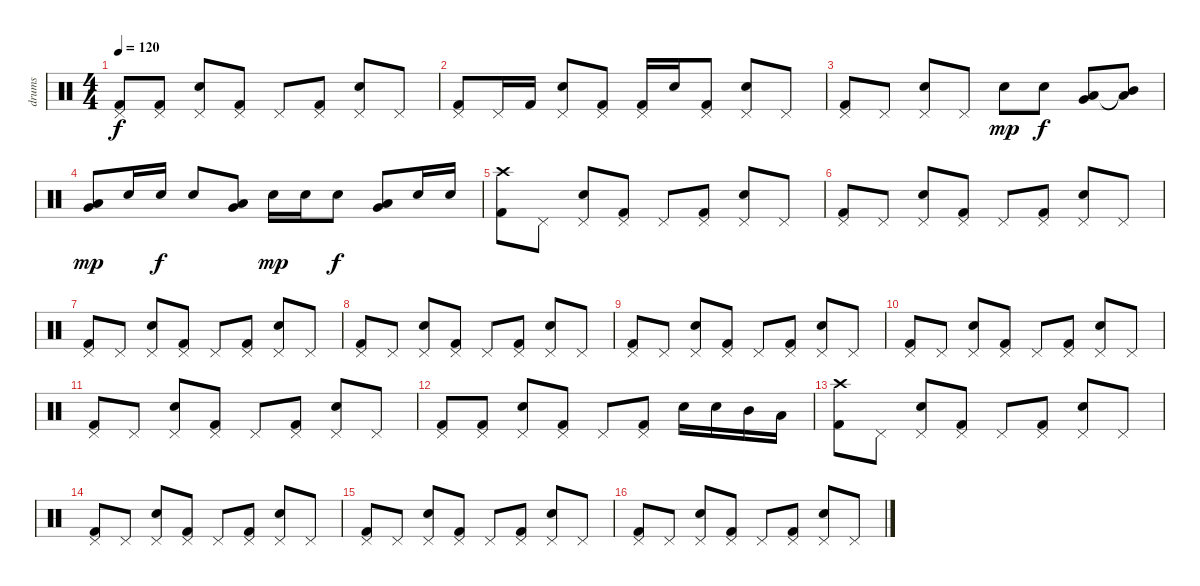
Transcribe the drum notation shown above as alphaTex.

\track ("drums" "drums") {instrument percussion}
\staff {score}
\articulation defaults
\ts (4 4)
\tempo 120
\clef neutral
\ks c
("Pedal Hi-Hat (hit)" "Kick (hit) 2").8{dy f} ("Pedal Hi-Hat (hit)" "Kick (hit) 2").8 ("Pedal Hi-Hat (hit)" "Electric Snare (hit)").8 ("Pedal Hi-Hat (hit)" "Kick (hit) 2").8 "Pedal Hi-Hat (hit)".8 ("Pedal Hi-Hat (hit)" "Kick (hit) 2").8 ("Pedal Hi-Hat (hit)" "Electric Snare (hit)").8 "Pedal Hi-Hat (hit)".8 |
("Pedal Hi-Hat (hit)" "Kick (hit) 2").8 "Pedal Hi-Hat (hit)".16 "Kick (hit) 2".16 ("Pedal Hi-Hat (hit)" "Electric Snare (hit)").8 ("Pedal Hi-Hat (hit)" "Kick (hit) 2").8 ("Pedal Hi-Hat (hit)" "Kick (hit) 2").16 "Electric Snare (hit)".16 ("Pedal Hi-Hat (hit)" "Kick (hit) 2").8 ("Pedal Hi-Hat (hit)" "Electric Snare (hit)").8 "Pedal Hi-Hat (hit)".8 |
("Pedal Hi-Hat (hit)" "Kick (hit) 2").8 "Pedal Hi-Hat (hit)".8 ("Pedal Hi-Hat (hit)" "Electric Snare (hit)").8 "Pedal Hi-Hat (hit)".8 "Electric Snare (hit)".8{dy mp} "Electric Snare (hit)".8{dy f} ("Very Low Tom (hit)" "Low Tom (hit)").8 ("Mid Tom (hit)"{t} "Low Tom (hit)"{t}).8 |
("Very Low Tom (hit)" "Low Tom (hit)").8{dy mp} "Electric Snare (hit)".16 "Electric Snare (hit)".16{dy f} "Electric Snare (hit)".8 ("Very Low Tom (hit)" "Low Tom (hit)").8 "Electric Snare (hit)".16{dy mp} "Electric Snare (hit)".16 "Electric Snare (hit)".8{dy f} ("Low Tom (hit)" "Very Low Tom (hit)").8 "Electric Snare (hit)".16 "Electric Snare (hit)".16 |
("Crash high (hit)" "Kick (hit) 2").8 "Pedal Hi-Hat (hit)".8 ("Pedal Hi-Hat (hit)" "Electric Snare (hit)").8 ("Pedal Hi-Hat (hit)" "Kick (hit) 2").8 "Pedal Hi-Hat (hit)".8 ("Pedal Hi-Hat (hit)" "Kick (hit) 2").8 ("Pedal Hi-Hat (hit)" "Electric Snare (hit)").8 "Pedal Hi-Hat (hit)".8 |
("Pedal Hi-Hat (hit)" "Kick (hit) 2").8 "Pedal Hi-Hat (hit)".8 ("Pedal Hi-Hat (hit)" "Electric Snare (hit)").8 ("Pedal Hi-Hat (hit)" "Kick (hit) 2").8 "Pedal Hi-Hat (hit)".8 ("Pedal Hi-Hat (hit)" "Kick (hit) 2").8 ("Pedal Hi-Hat (hit)" "Electric Snare (hit)").8 "Pedal Hi-Hat (hit)".8 |
("Pedal Hi-Hat (hit)" "Kick (hit) 2").8 "Pedal Hi-Hat (hit)".8 ("Pedal Hi-Hat (hit)" "Electric Snare (hit)").8 ("Pedal Hi-Hat (hit)" "Kick (hit) 2").8 "Pedal Hi-Hat (hit)".8 ("Pedal Hi-Hat (hit)" "Kick (hit) 2").8 ("Pedal Hi-Hat (hit)" "Electric Snare (hit)").8 "Pedal Hi-Hat (hit)".8 |
("Pedal Hi-Hat (hit)" "Kick (hit) 2").8 "Pedal Hi-Hat (hit)".8 ("Pedal Hi-Hat (hit)" "Electric Snare (hit)").8 ("Pedal Hi-Hat (hit)" "Kick (hit) 2").8 "Pedal Hi-Hat (hit)".8 ("Pedal Hi-Hat (hit)" "Kick (hit) 2").8 ("Pedal Hi-Hat (hit)" "Electric Snare (hit)").8 "Pedal Hi-Hat (hit)".8 |
("Pedal Hi-Hat (hit)" "Kick (hit) 2").8 "Pedal Hi-Hat (hit)".8 ("Pedal Hi-Hat (hit)" "Electric Snare (hit)").8 ("Pedal Hi-Hat (hit)" "Kick (hit) 2").8 "Pedal Hi-Hat (hit)".8 ("Pedal Hi-Hat (hit)" "Kick (hit) 2").8 ("Pedal Hi-Hat (hit)" "Electric Snare (hit)").8 "Pedal Hi-Hat (hit)".8 |
("Pedal Hi-Hat (hit)" "Kick (hit) 2").8 "Pedal Hi-Hat (hit)".8 ("Pedal Hi-Hat (hit)" "Electric Snare (hit)").8 ("Pedal Hi-Hat (hit)" "Kick (hit) 2").8 "Pedal Hi-Hat (hit)".8 ("Pedal Hi-Hat (hit)" "Kick (hit) 2").8 ("Pedal Hi-Hat (hit)" "Electric Snare (hit)").8 "Pedal Hi-Hat (hit)".8 |
("Pedal Hi-Hat (hit)" "Kick (hit) 2").8 "Pedal Hi-Hat (hit)".8 ("Pedal Hi-Hat (hit)" "Electric Snare (hit)").8 ("Pedal Hi-Hat (hit)" "Kick (hit) 2").8 "Pedal Hi-Hat (hit)".8 ("Pedal Hi-Hat (hit)" "Kick (hit) 2").8 ("Pedal Hi-Hat (hit)" "Electric Snare (hit)").8 "Pedal Hi-Hat (hit)".8 |
("Pedal Hi-Hat (hit)" "Kick (hit) 2").8 ("Pedal Hi-Hat (hit)" "Kick (hit) 2").8 ("Pedal Hi-Hat (hit)" "Electric Snare (hit)").8 ("Pedal Hi-Hat (hit)" "Kick (hit) 2").8 "Pedal Hi-Hat (hit)".8 ("Pedal Hi-Hat (hit)" "Kick (hit) 2").8 "Electric Snare (hit)".16 "Electric Snare (hit)".16 "Mid Tom (hit)".16 "Low Tom (hit)".16 |
("Crash high (hit)" "Kick (hit) 2").8 "Pedal Hi-Hat (hit)".8 ("Pedal Hi-Hat (hit)" "Electric Snare (hit)").8 ("Pedal Hi-Hat (hit)" "Kick (hit) 2").8 "Pedal Hi-Hat (hit)".8 ("Pedal Hi-Hat (hit)" "Kick (hit) 2").8 ("Pedal Hi-Hat (hit)" "Electric Snare (hit)").8 "Pedal Hi-Hat (hit)".8 |
("Pedal Hi-Hat (hit)" "Kick (hit) 2").8 "Pedal Hi-Hat (hit)".8 ("Pedal Hi-Hat (hit)" "Electric Snare (hit)").8 ("Pedal Hi-Hat (hit)" "Kick (hit) 2").8 "Pedal Hi-Hat (hit)".8 ("Pedal Hi-Hat (hit)" "Kick (hit) 2").8 ("Pedal Hi-Hat (hit)" "Electric Snare (hit)").8 "Pedal Hi-Hat (hit)".8 |
("Pedal Hi-Hat (hit)" "Kick (hit) 2").8 "Pedal Hi-Hat (hit)".8 ("Pedal Hi-Hat (hit)" "Electric Snare (hit)").8 ("Pedal Hi-Hat (hit)" "Kick (hit) 2").8 "Pedal Hi-Hat (hit)".8 ("Pedal Hi-Hat (hit)" "Kick (hit) 2").8 ("Pedal Hi-Hat (hit)" "Electric Snare (hit)").8 "Pedal Hi-Hat (hit)".8 |
("Pedal Hi-Hat (hit)" "Kick (hit) 2").8 "Pedal Hi-Hat (hit)".8 ("Pedal Hi-Hat (hit)" "Electric Snare (hit)").8 ("Pedal Hi-Hat (hit)" "Kick (hit) 2").8 "Pedal Hi-Hat (hit)".8 ("Pedal Hi-Hat (hit)" "Kick (hit) 2").8 ("Pedal Hi-Hat (hit)" "Electric Snare (hit)").8 "Pedal Hi-Hat (hit)".8
